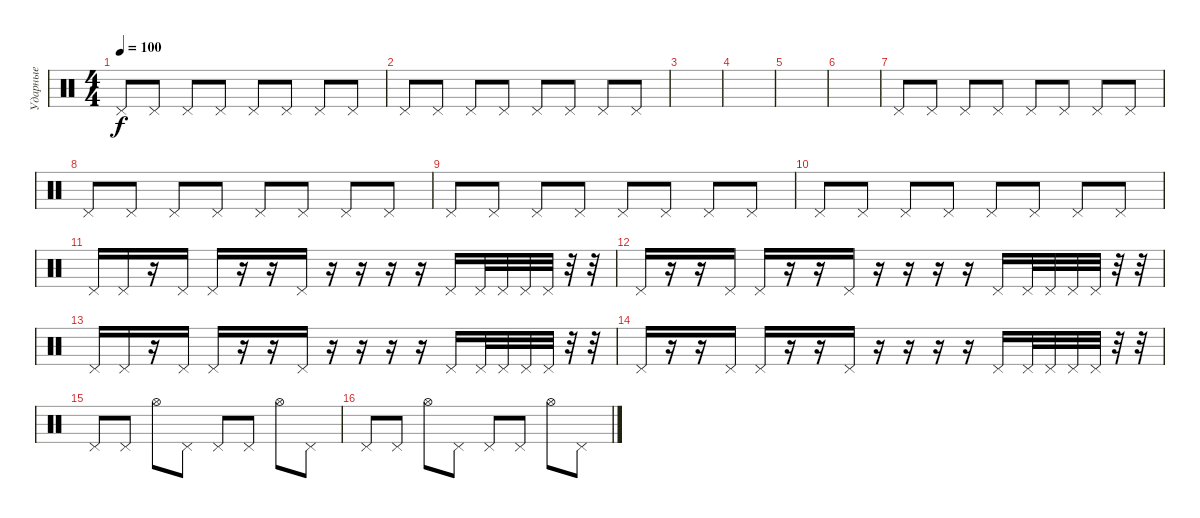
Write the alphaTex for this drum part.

\track ("Ударные" "Ударные") {instrument percussion}
\staff {score}
\articulation defaults
\ts (4 4)
\tempo 100
\clef neutral
\ks c "Pedal Hi-Hat (hit)".8{dy f} "Pedal Hi-Hat (hit)".8 "Pedal Hi-Hat (hit)".8 "Pedal Hi-Hat (hit)".8 "Pedal Hi-Hat (hit)".8 "Pedal Hi-Hat (hit)".8 "Pedal Hi-Hat (hit)".8 "Pedal Hi-Hat (hit)".8
|
"Pedal Hi-Hat (hit)".8 "Pedal Hi-Hat (hit)".8 "Pedal Hi-Hat (hit)".8 "Pedal Hi-Hat (hit)".8 "Pedal Hi-Hat (hit)".8 "Pedal Hi-Hat (hit)".8 "Pedal Hi-Hat (hit)".8 "Pedal Hi-Hat (hit)".8 |
|
|
|
|
"Pedal Hi-Hat (hit)".8 "Pedal Hi-Hat (hit)".8 "Pedal Hi-Hat (hit)".8 "Pedal Hi-Hat (hit)".8 "Pedal Hi-Hat (hit)".8 "Pedal Hi-Hat (hit)".8 "Pedal Hi-Hat (hit)".8 "Pedal Hi-Hat (hit)".8 |
"Pedal Hi-Hat (hit)".8 "Pedal Hi-Hat (hit)".8 "Pedal Hi-Hat (hit)".8 "Pedal Hi-Hat (hit)".8 "Pedal Hi-Hat (hit)".8 "Pedal Hi-Hat (hit)".8 "Pedal Hi-Hat (hit)".8 "Pedal Hi-Hat (hit)".8 |
"Pedal Hi-Hat (hit)".8 "Pedal Hi-Hat (hit)".8 "Pedal Hi-Hat (hit)".8 "Pedal Hi-Hat (hit)".8 "Pedal Hi-Hat (hit)".8 "Pedal Hi-Hat (hit)".8 "Pedal Hi-Hat (hit)".8 "Pedal Hi-Hat (hit)".8 |
"Pedal Hi-Hat (hit)".8 "Pedal Hi-Hat (hit)".8 "Pedal Hi-Hat (hit)".8 "Pedal Hi-Hat (hit)".8 "Pedal Hi-Hat (hit)".8 "Pedal Hi-Hat (hit)".8 "Pedal Hi-Hat (hit)".8 "Pedal Hi-Hat (hit)".8 |
"Pedal Hi-Hat (hit)".16 "Pedal Hi-Hat (hit)".16 r.16 "Pedal Hi-Hat (hit)".16 "Pedal Hi-Hat (hit)".16 r.16 r.16 "Pedal Hi-Hat (hit)".16 r.16 r.16 r.16 r.16 "Pedal Hi-Hat (hit)".16 "Pedal Hi-Hat (hit)".32 "Pedal Hi-Hat (hit)".32 "Pedal Hi-Hat (hit)".32 "Pedal Hi-Hat (hit)".32 r.32 r.32 |
"Pedal Hi-Hat (hit)".16 r.16 r.16 "Pedal Hi-Hat (hit)".16 "Pedal Hi-Hat (hit)".16 r.16 r.16 "Pedal Hi-Hat (hit)".16 r.16 r.16 r.16 r.16 "Pedal Hi-Hat (hit)".16 "Pedal Hi-Hat (hit)".32 "Pedal Hi-Hat (hit)".32 "Pedal Hi-Hat (hit)".32 "Pedal Hi-Hat (hit)".32 r.32 r.32 |
"Pedal Hi-Hat (hit)".16 "Pedal Hi-Hat (hit)".16 r.16 "Pedal Hi-Hat (hit)".16 "Pedal Hi-Hat (hit)".16 r.16 r.16 "Pedal Hi-Hat (hit)".16 r.16 r.16 r.16 r.16 "Pedal Hi-Hat (hit)".16 "Pedal Hi-Hat (hit)".32 "Pedal Hi-Hat (hit)".32 "Pedal Hi-Hat (hit)".32 "Pedal Hi-Hat (hit)".32 r.32 r.32 |
"Pedal Hi-Hat (hit)".16 r.16 r.16 "Pedal Hi-Hat (hit)".16 "Pedal Hi-Hat (hit)".16 r.16 r.16 "Pedal Hi-Hat (hit)".16 r.16 r.16 r.16 r.16 "Pedal Hi-Hat (hit)".16 "Pedal Hi-Hat (hit)".32 "Pedal Hi-Hat (hit)".32 "Pedal Hi-Hat (hit)".32 "Pedal Hi-Hat (hit)".32 r.32 r.32 |
"Pedal Hi-Hat (hit)".8 "Pedal Hi-Hat (hit)".8 "Hi-Hat (open)".8 "Pedal Hi-Hat (hit)".8 "Pedal Hi-Hat (hit)".8 "Pedal Hi-Hat (hit)".8 "Hi-Hat (open)".8 "Pedal Hi-Hat (hit)".8 |
"Pedal Hi-Hat (hit)".8 "Pedal Hi-Hat (hit)".8 "Hi-Hat (open)".8 "Pedal Hi-Hat (hit)".8 "Pedal Hi-Hat (hit)".8 "Pedal Hi-Hat (hit)".8 "Hi-Hat (open)".8 "Pedal Hi-Hat (hit)".8
